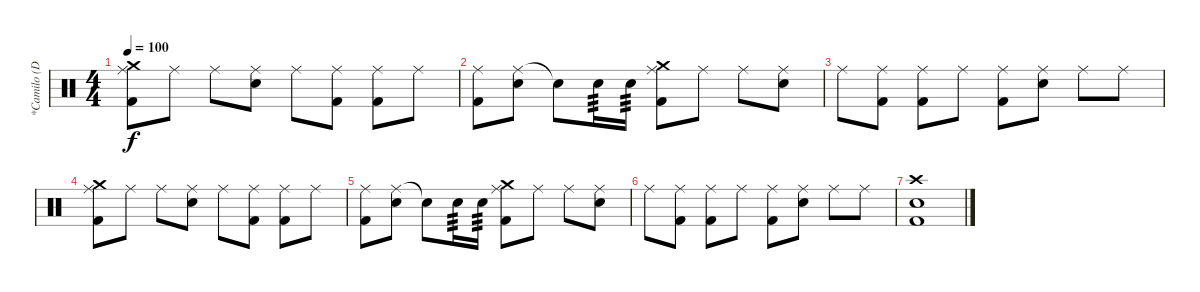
\track ("*Camilo (Drums)" "*Camilo (D") {instrument percussion}
\staff {score}
\articulation defaults
\ts (4 4)
\tempo 100
\clef neutral
\ks c
("Crash medium (hit)" "Ride (middle)" "Kick (hit) 2").8{dy f} "Ride (middle)".8 "Ride (middle)".8 ("Ride (middle)" "Electric Snare (hit)").8 "Ride (middle)".8 ("Ride (middle)" "Kick (hit) 2").8 ("Ride (middle)" "Kick (hit) 2").8 "Ride (middle)".8 |
("Ride (middle)" "Kick (hit) 2").8 ("Ride (middle)" "Electric Snare (hit)").8 "Snare (hit)"{t}.8 "Electric Snare (hit)".16{tp 3} "Electric Snare (hit)".16{tp 3} ("Crash medium (hit)" "Ride (middle)" "Kick (hit) 2").8 "Ride (middle)".8 "Ride (middle)".8 ("Ride (middle)" "Electric Snare (hit)").8 |
"Ride (middle)".8 ("Ride (middle)" "Kick (hit) 2").8 ("Ride (middle)" "Kick (hit) 2").8 "Ride (middle)".8 ("Ride (middle)" "Kick (hit) 2").8 ("Ride (middle)" "Electric Snare (hit)").8 "Ride (middle)".8 "Ride (middle)".8 |
("Crash medium (hit)" "Ride (middle)" "Kick (hit) 2").8 "Ride (middle)".8 "Ride (middle)".8 ("Ride (middle)" "Electric Snare (hit)").8 "Ride (middle)".8 ("Ride (middle)" "Kick (hit) 2").8 ("Ride (middle)" "Kick (hit) 2").8 "Ride (middle)".8 |
("Ride (middle)" "Kick (hit) 2").8 ("Ride (middle)" "Electric Snare (hit)").8 "Snare (hit)"{t}.8 "Electric Snare (hit)".16{tp 3} "Electric Snare (hit)".16{tp 3} ("Crash medium (hit)" "Ride (middle)" "Kick (hit) 2").8 "Ride (middle)".8 "Ride (middle)".8 ("Ride (middle)" "Electric Snare (hit)").8 |
"Ride (middle)".8 ("Ride (middle)" "Kick (hit) 2").8 ("Ride (middle)" "Kick (hit) 2").8 "Ride (middle)".8 ("Ride (middle)" "Kick (hit) 2").8 ("Ride (middle)" "Electric Snare (hit)").8 "Ride (middle)".8 "Ride (middle)".8 |
("Crash high (hit)" "Electric Snare (hit)" "Kick (hit) 2").1
